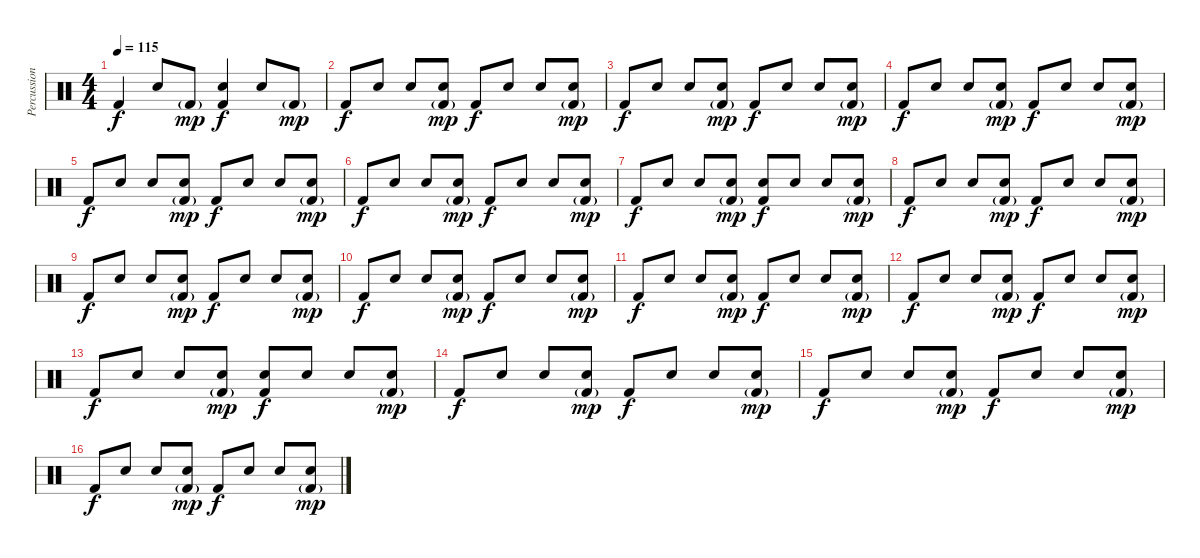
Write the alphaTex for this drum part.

\track ("Percussion" "Percussion") {instrument percussion}
\staff {score}
\articulation defaults
\ts (4 4)
\tempo 115
\clef neutral
\ks c "Kick (hit) 2".4{dy f} "Snare (hit) 2".8 "Kick (hit) 2"{g}.8{dy mp}
("Snare (hit) 2" "Kick (hit) 2").4{dy f} "Snare (hit) 2".8 "Kick (hit) 2"{g}.8{dy mp} |
"Kick (hit) 2".8{dy f} "Hand Clap (hit)".8 "Snare (hit) 2".8 ("Hand Clap (hit)" "Kick (hit) 2"{g}).8{dy mp} "Kick (hit) 2".8{dy f} "Hand Clap (hit)".8 "Snare (hit) 2".8 ("Hand Clap (hit)" "Kick (hit) 2"{g}).8{dy mp} |
"Kick (hit) 2".8{dy f} "Hand Clap (hit)".8 "Snare (hit) 2".8 ("Hand Clap (hit)" "Kick (hit) 2"{g}).8{dy mp} "Kick (hit) 2".8{dy f} "Hand Clap (hit)".8 "Snare (hit) 2".8 ("Hand Clap (hit)" "Kick (hit) 2"{g}).8{dy mp} |
"Kick (hit) 2".8{dy f} "Hand Clap (hit)".8 "Snare (hit) 2".8 ("Hand Clap (hit)" "Kick (hit) 2"{g}).8{dy mp} "Kick (hit) 2".8{dy f} "Hand Clap (hit)".8 "Snare (hit) 2".8 ("Hand Clap (hit)" "Kick (hit) 2"{g}).8{dy mp} |
"Kick (hit) 2".8{dy f} "Hand Clap (hit)".8 "Snare (hit) 2".8 ("Hand Clap (hit)" "Kick (hit) 2"{g}).8{dy mp} "Kick (hit) 2".8{dy f} "Hand Clap (hit)".8 "Snare (hit) 2".8 ("Hand Clap (hit)" "Kick (hit) 2"{g}).8{dy mp} |
"Kick (hit) 2".8{dy f} "Hand Clap (hit)".8 "Snare (hit) 2".8 ("Hand Clap (hit)" "Kick (hit) 2"{g}).8{dy mp} "Kick (hit) 2".8{dy f} "Hand Clap (hit)".8 "Snare (hit) 2".8 ("Hand Clap (hit)" "Kick (hit) 2"{g}).8{dy mp} |
"Kick (hit) 2".8{dy f} "Hand Clap (hit)".8 "Snare (hit) 2".8 ("Hand Clap (hit)" "Kick (hit) 2"{g}).8{dy mp} ("Snare (hit) 2" "Kick (hit) 2").8{dy f} "Hand Clap (hit)".8 "Snare (hit) 2".8 ("Hand Clap (hit)" "Kick (hit) 2"{g}).8{dy mp} |
"Kick (hit) 2".8{dy f} "Hand Clap (hit)".8 "Snare (hit) 2".8 ("Hand Clap (hit)" "Kick (hit) 2"{g}).8{dy mp} "Kick (hit) 2".8{dy f} "Hand Clap (hit)".8 "Snare (hit) 2".8 ("Hand Clap (hit)" "Kick (hit) 2"{g}).8{dy mp} |
"Kick (hit) 2".8{dy f} "Hand Clap (hit)".8 "Snare (hit) 2".8 ("Hand Clap (hit)" "Kick (hit) 2"{g}).8{dy mp} "Kick (hit) 2".8{dy f} "Hand Clap (hit)".8 "Snare (hit) 2".8 ("Hand Clap (hit)" "Kick (hit) 2"{g}).8{dy mp} |
"Kick (hit) 2".8{dy f} "Hand Clap (hit)".8 "Snare (hit) 2".8 ("Hand Clap (hit)" "Kick (hit) 2"{g}).8{dy mp} "Kick (hit) 2".8{dy f} "Hand Clap (hit)".8 "Snare (hit) 2".8 ("Hand Clap (hit)" "Kick (hit) 2"{g}).8{dy mp} |
"Kick (hit) 2".8{dy f} "Hand Clap (hit)".8 "Snare (hit) 2".8 ("Hand Clap (hit)" "Kick (hit) 2"{g}).8{dy mp} "Kick (hit) 2".8{dy f} "Hand Clap (hit)".8 "Snare (hit) 2".8 ("Hand Clap (hit)" "Kick (hit) 2"{g}).8{dy mp} |
"Kick (hit) 2".8{dy f} "Hand Clap (hit)".8 "Snare (hit) 2".8 ("Hand Clap (hit)" "Kick (hit) 2"{g}).8{dy mp} "Kick (hit) 2".8{dy f} "Hand Clap (hit)".8 "Snare (hit) 2".8 ("Hand Clap (hit)" "Kick (hit) 2"{g}).8{dy mp} |
"Kick (hit) 2".8{dy f} "Hand Clap (hit)".8 "Snare (hit) 2".8 ("Hand Clap (hit)" "Kick (hit) 2"{g}).8{dy mp} ("Snare (hit) 2" "Kick (hit) 2").8{dy f} "Hand Clap (hit)".8 "Snare (hit) 2".8 ("Hand Clap (hit)" "Kick (hit) 2"{g}).8{dy mp} |
"Kick (hit) 2".8{dy f} "Hand Clap (hit)".8 "Snare (hit) 2".8 ("Hand Clap (hit)" "Kick (hit) 2"{g}).8{dy mp} "Kick (hit) 2".8{dy f} "Hand Clap (hit)".8 "Snare (hit) 2".8 ("Hand Clap (hit)" "Kick (hit) 2"{g}).8{dy mp} |
"Kick (hit) 2".8{dy f} "Hand Clap (hit)".8 "Snare (hit) 2".8 ("Hand Clap (hit)" "Kick (hit) 2"{g}).8{dy mp} "Kick (hit) 2".8{dy f} "Hand Clap (hit)".8 "Snare (hit) 2".8 ("Hand Clap (hit)" "Kick (hit) 2"{g}).8{dy mp} |
"Kick (hit) 2".8{dy f} "Hand Clap (hit)".8 "Snare (hit) 2".8 ("Hand Clap (hit)" "Kick (hit) 2"{g}).8{dy mp} "Kick (hit) 2".8{dy f} "Hand Clap (hit)".8 "Snare (hit) 2".8 ("Hand Clap (hit)" "Kick (hit) 2"{g}).8{dy mp}
